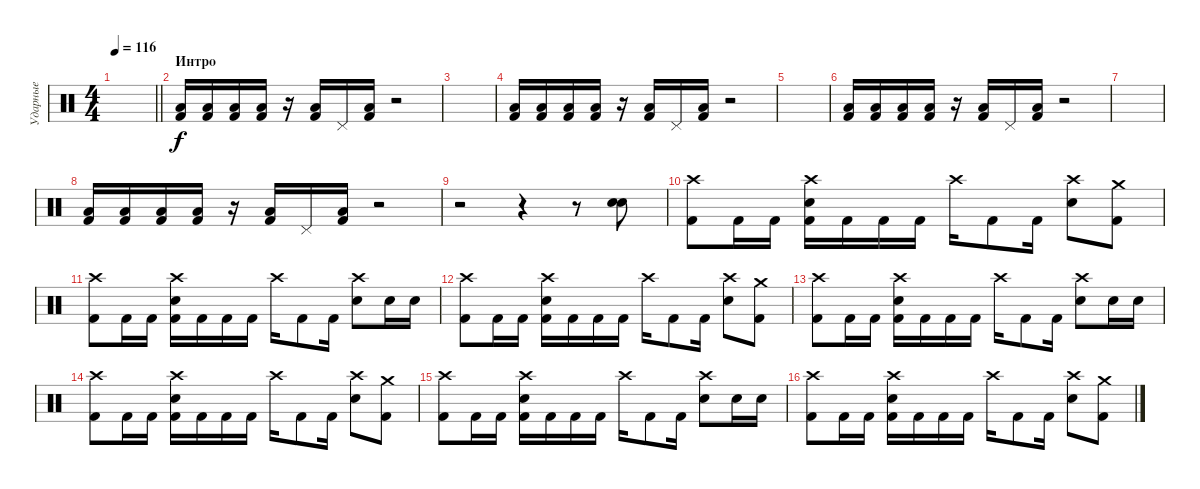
\track ("Ударные" "Ударные") {instrument percussion}
\staff {score}
\articulation defaults
\ts (4 4)
\tempo 116
\clef neutral
\barLineRight lightlight
\ks c
|
\section ("" "Интро")
("Low Tom (hit)" "Kick (hit) 2").16 ("Low Tom (hit)" "Kick (hit) 2").16 ("Low Tom (hit)" "Kick (hit) 2").16 ("Low Tom (hit)" "Kick (hit) 2").16 r.16 ("Low Tom (hit)" "Kick (hit) 2").16 "Pedal Hi-Hat (hit)".16 ("Low Tom (hit)" "Kick (hit) 2").16 r.2 |
|
("Low Tom (hit)" "Kick (hit) 2").16 ("Low Tom (hit)" "Kick (hit) 2").16 ("Low Tom (hit)" "Kick (hit) 2").16 ("Low Tom (hit)" "Kick (hit) 2").16 r.16 ("Low Tom (hit)" "Kick (hit) 2").16 "Pedal Hi-Hat (hit)".16 ("Low Tom (hit)" "Kick (hit) 2").16 r.2 |
|
("Low Tom (hit)" "Kick (hit) 2").16 ("Low Tom (hit)" "Kick (hit) 2").16 ("Low Tom (hit)" "Kick (hit) 2").16 ("Low Tom (hit)" "Kick (hit) 2").16 r.16 ("Low Tom (hit)" "Kick (hit) 2").16 "Pedal Hi-Hat (hit)".16 ("Low Tom (hit)" "Kick (hit) 2").16 r.2 |
|
("Low Tom (hit)" "Kick (hit) 2").16 ("Low Tom (hit)" "Kick (hit) 2").16 ("Low Tom (hit)" "Kick (hit) 2").16 ("Low Tom (hit)" "Kick (hit) 2").16 r.16 ("Low Tom (hit)" "Kick (hit) 2").16 "Pedal Hi-Hat (hit)".16 ("Low Tom (hit)" "Kick (hit) 2").16 r.2 |
r.2 r.4 r.8 ("Snare (hit) 2" "Snare (hit) 2").8 |
("Crash high (hit)" "Kick (hit) 2").8 "Kick (hit) 2".16 "Kick (hit) 2".16 ("Crash high (hit)" "Snare (hit) 2" "Kick (hit) 2").16 "Kick (hit) 2".16 "Kick (hit) 2".16 "Kick (hit) 2".16 "Crash high (hit)".16 "Kick (hit) 2".8 "Kick (hit) 2".16 ("Crash high (hit)" "Snare (hit) 2").8 ("Crash medium (hit)" "Kick (hit) 2").8 |
("Crash high (hit)" "Kick (hit) 2").8 "Kick (hit) 2".16 "Kick (hit) 2".16 ("Crash high (hit)" "Snare (hit) 2" "Kick (hit) 2").16 "Kick (hit) 2".16 "Kick (hit) 2".16 "Kick (hit) 2".16 "Crash high (hit)".16 "Kick (hit) 2".8 "Kick (hit) 2".16 ("Crash high (hit)" "Snare (hit) 2").8 "Snare (hit) 2".16 "Snare (hit) 2".16 |
("Crash high (hit)" "Kick (hit) 2").8 "Kick (hit) 2".16 "Kick (hit) 2".16 ("Crash high (hit)" "Snare (hit) 2" "Kick (hit) 2").16 "Kick (hit) 2".16 "Kick (hit) 2".16 "Kick (hit) 2".16 "Crash high (hit)".16 "Kick (hit) 2".8 "Kick (hit) 2".16 ("Crash high (hit)" "Snare (hit) 2").8 ("Crash medium (hit)" "Kick (hit) 2").8 |
("Crash high (hit)" "Kick (hit) 2").8 "Kick (hit) 2".16 "Kick (hit) 2".16 ("Crash high (hit)" "Snare (hit) 2" "Kick (hit) 2").16 "Kick (hit) 2".16 "Kick (hit) 2".16 "Kick (hit) 2".16 "Crash high (hit)".16 "Kick (hit) 2".8 "Kick (hit) 2".16 ("Crash high (hit)" "Snare (hit) 2").8 "Snare (hit) 2".16 "Snare (hit) 2".16 |
("Crash high (hit)" "Kick (hit) 2").8 "Kick (hit) 2".16 "Kick (hit) 2".16 ("Crash high (hit)" "Snare (hit) 2" "Kick (hit) 2").16 "Kick (hit) 2".16 "Kick (hit) 2".16 "Kick (hit) 2".16 "Crash high (hit)".16 "Kick (hit) 2".8 "Kick (hit) 2".16 ("Crash high (hit)" "Snare (hit) 2").8 ("Crash medium (hit)" "Kick (hit) 2").8 |
("Crash high (hit)" "Kick (hit) 2").8 "Kick (hit) 2".16 "Kick (hit) 2".16 ("Crash high (hit)" "Snare (hit) 2" "Kick (hit) 2").16 "Kick (hit) 2".16 "Kick (hit) 2".16 "Kick (hit) 2".16 "Crash high (hit)".16 "Kick (hit) 2".8 "Kick (hit) 2".16 ("Crash high (hit)" "Snare (hit) 2").8 "Snare (hit) 2".16 "Snare (hit) 2".16 |
("Crash high (hit)" "Kick (hit) 2").8 "Kick (hit) 2".16 "Kick (hit) 2".16 ("Crash high (hit)" "Snare (hit) 2" "Kick (hit) 2").16 "Kick (hit) 2".16 "Kick (hit) 2".16 "Kick (hit) 2".16 "Crash high (hit)".16 "Kick (hit) 2".8 "Kick (hit) 2".16 ("Crash high (hit)" "Snare (hit) 2").8 ("Crash medium (hit)" "Kick (hit) 2").8
